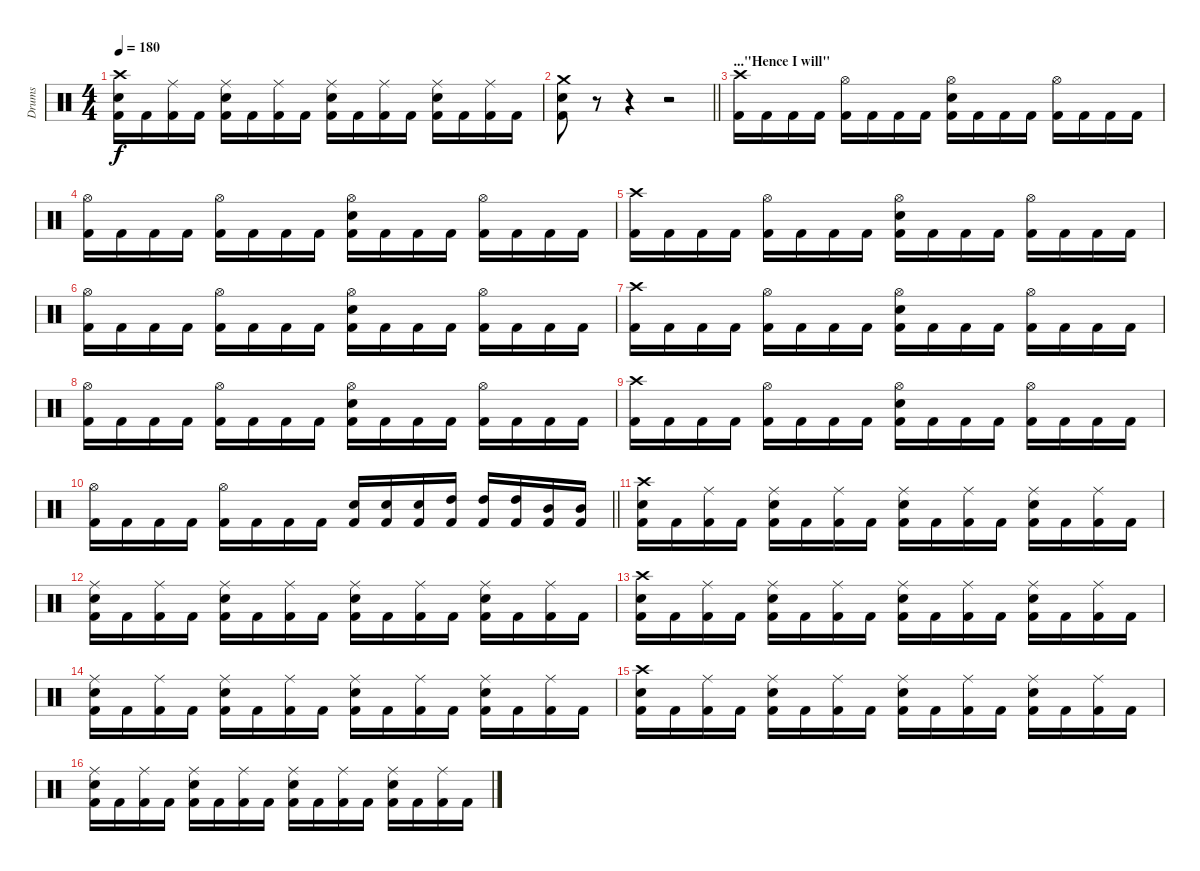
\track ("Drums" "Drums") {instrument percussion}
\staff {score}
\articulation defaults
\ts (4 4)
\tempo 180
\clef neutral
\ks c
("Crash high (hit)" "Electric Snare (hit)" "Kick (hit) 2").16{dy f} "Kick (hit) 2".16 ("Ride (middle)" "Kick (hit) 2").16 "Kick (hit) 2".16 ("Ride (middle)" "Electric Snare (hit)" "Kick (hit) 2").16 "Kick (hit) 2".16 ("Ride (middle)" "Kick (hit) 2").16 "Kick (hit) 2".16 ("Ride (middle)" "Electric Snare (hit)" "Kick (hit) 2").16 "Kick (hit) 2".16 ("Ride (middle)" "Kick (hit) 2").16 "Kick (hit) 2".16 ("Ride (middle)" "Electric Snare (hit)" "Kick (hit) 2").16 "Kick (hit) 2".16 ("Ride (middle)" "Kick (hit) 2").16 "Kick (hit) 2".16 |
\barLineRight lightlight
("Crash medium (hit)" "Electric Snare (hit)" "Kick (hit) 2").8 r.8 r.4{volume 0} r.2{volume 16} |
\section ("" "...\"Hence I will\"")
("Crash high (hit)" "Kick (hit) 2").16 "Kick (hit) 2".16 "Kick (hit) 2".16 "Kick (hit) 2".16 ("Hi-Hat (open)" "Kick (hit) 2").16 "Kick (hit) 2".16 "Kick (hit) 2".16 "Kick (hit) 2".16 ("Hi-Hat (open)" "Electric Snare (hit)" "Kick (hit) 2").16 "Kick (hit) 2".16 "Kick (hit) 2".16 "Kick (hit) 2".16 ("Hi-Hat (open)" "Kick (hit) 2").16 "Kick (hit) 2".16 "Kick (hit) 2".16 "Kick (hit) 2".16 |
("Hi-Hat (open)" "Kick (hit) 2").16 "Kick (hit) 2".16 "Kick (hit) 2".16 "Kick (hit) 2".16 ("Hi-Hat (open)" "Kick (hit) 2").16 "Kick (hit) 2".16 "Kick (hit) 2".16 "Kick (hit) 2".16 ("Hi-Hat (open)" "Electric Snare (hit)" "Kick (hit) 2").16 "Kick (hit) 2".16 "Kick (hit) 2".16 "Kick (hit) 2".16 ("Hi-Hat (open)" "Kick (hit) 2").16 "Kick (hit) 2".16 "Kick (hit) 2".16 "Kick (hit) 2".16 |
("Crash high (hit)" "Kick (hit) 2").16 "Kick (hit) 2".16 "Kick (hit) 2".16 "Kick (hit) 2".16 ("Hi-Hat (open)" "Kick (hit) 2").16 "Kick (hit) 2".16 "Kick (hit) 2".16 "Kick (hit) 2".16 ("Hi-Hat (open)" "Electric Snare (hit)" "Kick (hit) 2").16 "Kick (hit) 2".16 "Kick (hit) 2".16 "Kick (hit) 2".16 ("Hi-Hat (open)" "Kick (hit) 2").16 "Kick (hit) 2".16 "Kick (hit) 2".16 "Kick (hit) 2".16 |
("Hi-Hat (open)" "Kick (hit) 2").16 "Kick (hit) 2".16 "Kick (hit) 2".16 "Kick (hit) 2".16 ("Hi-Hat (open)" "Kick (hit) 2").16 "Kick (hit) 2".16 "Kick (hit) 2".16 "Kick (hit) 2".16 ("Hi-Hat (open)" "Electric Snare (hit)" "Kick (hit) 2").16 "Kick (hit) 2".16 "Kick (hit) 2".16 "Kick (hit) 2".16 ("Hi-Hat (open)" "Kick (hit) 2").16 "Kick (hit) 2".16 "Kick (hit) 2".16 "Kick (hit) 2".16 |
("Crash high (hit)" "Kick (hit) 2").16 "Kick (hit) 2".16 "Kick (hit) 2".16 "Kick (hit) 2".16 ("Hi-Hat (open)" "Kick (hit) 2").16 "Kick (hit) 2".16 "Kick (hit) 2".16 "Kick (hit) 2".16 ("Hi-Hat (open)" "Electric Snare (hit)" "Kick (hit) 2").16 "Kick (hit) 2".16 "Kick (hit) 2".16 "Kick (hit) 2".16 ("Hi-Hat (open)" "Kick (hit) 2").16 "Kick (hit) 2".16 "Kick (hit) 2".16 "Kick (hit) 2".16 |
("Hi-Hat (open)" "Kick (hit) 2").16 "Kick (hit) 2".16 "Kick (hit) 2".16 "Kick (hit) 2".16 ("Hi-Hat (open)" "Kick (hit) 2").16 "Kick (hit) 2".16 "Kick (hit) 2".16 "Kick (hit) 2".16 ("Hi-Hat (open)" "Electric Snare (hit)" "Kick (hit) 2").16 "Kick (hit) 2".16 "Kick (hit) 2".16 "Kick (hit) 2".16 ("Hi-Hat (open)" "Kick (hit) 2").16 "Kick (hit) 2".16 "Kick (hit) 2".16 "Kick (hit) 2".16 |
("Crash high (hit)" "Kick (hit) 2").16 "Kick (hit) 2".16 "Kick (hit) 2".16 "Kick (hit) 2".16 ("Hi-Hat (open)" "Kick (hit) 2").16 "Kick (hit) 2".16 "Kick (hit) 2".16 "Kick (hit) 2".16 ("Hi-Hat (open)" "Electric Snare (hit)" "Kick (hit) 2").16 "Kick (hit) 2".16 "Kick (hit) 2".16 "Kick (hit) 2".16 ("Hi-Hat (open)" "Kick (hit) 2").16 "Kick (hit) 2".16 "Kick (hit) 2".16 "Kick (hit) 2".16 |
\barLineRight lightlight
("Hi-Hat (open)" "Kick (hit) 2").16 "Kick (hit) 2".16 "Kick (hit) 2".16 "Kick (hit) 2".16 ("Hi-Hat (open)" "Kick (hit) 2").16 "Kick (hit) 2".16 "Kick (hit) 2".16 "Kick (hit) 2".16 ("Electric Snare (hit)" "Kick (hit) 2").16 ("Electric Snare (hit)" "Kick (hit) 2").16 ("Electric Snare (hit)" "Kick (hit) 2").16 ("High Tom (hit)" "Kick (hit) 2").16 ("High Tom (hit)" "Kick (hit) 2").16 ("High Tom (hit)" "Kick (hit) 2").16 ("Mid Tom (hit)" "Kick (hit) 2").16 ("Mid Tom (hit)" "Kick (hit) 2").16 |
\section ("" "")
("Crash high (hit)" "Electric Snare (hit)" "Kick (hit) 2").16 "Kick (hit) 2".16 ("Ride (middle)" "Kick (hit) 2").16 "Kick (hit) 2".16 ("Ride (middle)" "Electric Snare (hit)" "Kick (hit) 2").16 "Kick (hit) 2".16 ("Ride (middle)" "Kick (hit) 2").16 "Kick (hit) 2".16 ("Ride (middle)" "Electric Snare (hit)" "Kick (hit) 2").16 "Kick (hit) 2".16 ("Ride (middle)" "Kick (hit) 2").16 "Kick (hit) 2".16 ("Ride (middle)" "Electric Snare (hit)" "Kick (hit) 2").16 "Kick (hit) 2".16 ("Ride (middle)" "Kick (hit) 2").16 "Kick (hit) 2".16 |
("Ride (middle)" "Electric Snare (hit)" "Kick (hit) 2").16 "Kick (hit) 2".16 ("Ride (middle)" "Kick (hit) 2").16 "Kick (hit) 2".16 ("Ride (middle)" "Electric Snare (hit)" "Kick (hit) 2").16 "Kick (hit) 2".16 ("Ride (middle)" "Kick (hit) 2").16 "Kick (hit) 2".16 ("Ride (middle)" "Electric Snare (hit)" "Kick (hit) 2").16 "Kick (hit) 2".16 ("Ride (middle)" "Kick (hit) 2").16 "Kick (hit) 2".16 ("Ride (middle)" "Electric Snare (hit)" "Kick (hit) 2").16 "Kick (hit) 2".16 ("Ride (middle)" "Kick (hit) 2").16 "Kick (hit) 2".16 |
("Crash high (hit)" "Electric Snare (hit)" "Kick (hit) 2").16 "Kick (hit) 2".16 ("Ride (middle)" "Kick (hit) 2").16 "Kick (hit) 2".16 ("Ride (middle)" "Electric Snare (hit)" "Kick (hit) 2").16 "Kick (hit) 2".16 ("Ride (middle)" "Kick (hit) 2").16 "Kick (hit) 2".16 ("Ride (middle)" "Electric Snare (hit)" "Kick (hit) 2").16 "Kick (hit) 2".16 ("Ride (middle)" "Kick (hit) 2").16 "Kick (hit) 2".16 ("Ride (middle)" "Electric Snare (hit)" "Kick (hit) 2").16 "Kick (hit) 2".16 ("Ride (middle)" "Kick (hit) 2").16 "Kick (hit) 2".16 |
("Ride (middle)" "Electric Snare (hit)" "Kick (hit) 2").16 "Kick (hit) 2".16 ("Ride (middle)" "Kick (hit) 2").16 "Kick (hit) 2".16 ("Ride (middle)" "Electric Snare (hit)" "Kick (hit) 2").16 "Kick (hit) 2".16 ("Ride (middle)" "Kick (hit) 2").16 "Kick (hit) 2".16 ("Ride (middle)" "Electric Snare (hit)" "Kick (hit) 2").16 "Kick (hit) 2".16 ("Ride (middle)" "Kick (hit) 2").16 "Kick (hit) 2".16 ("Ride (middle)" "Electric Snare (hit)" "Kick (hit) 2").16 "Kick (hit) 2".16 ("Ride (middle)" "Kick (hit) 2").16 "Kick (hit) 2".16 |
("Crash high (hit)" "Electric Snare (hit)" "Kick (hit) 2").16 "Kick (hit) 2".16 ("Ride (middle)" "Kick (hit) 2").16 "Kick (hit) 2".16 ("Ride (middle)" "Electric Snare (hit)" "Kick (hit) 2").16 "Kick (hit) 2".16 ("Ride (middle)" "Kick (hit) 2").16 "Kick (hit) 2".16 ("Ride (middle)" "Electric Snare (hit)" "Kick (hit) 2").16 "Kick (hit) 2".16 ("Ride (middle)" "Kick (hit) 2").16 "Kick (hit) 2".16 ("Ride (middle)" "Electric Snare (hit)" "Kick (hit) 2").16 "Kick (hit) 2".16 ("Ride (middle)" "Kick (hit) 2").16 "Kick (hit) 2".16 |
("Ride (middle)" "Electric Snare (hit)" "Kick (hit) 2").16 "Kick (hit) 2".16 ("Ride (middle)" "Kick (hit) 2").16 "Kick (hit) 2".16 ("Ride (middle)" "Electric Snare (hit)" "Kick (hit) 2").16 "Kick (hit) 2".16 ("Ride (middle)" "Kick (hit) 2").16 "Kick (hit) 2".16 ("Ride (middle)" "Electric Snare (hit)" "Kick (hit) 2").16 "Kick (hit) 2".16 ("Ride (middle)" "Kick (hit) 2").16 "Kick (hit) 2".16 ("Ride (middle)" "Electric Snare (hit)" "Kick (hit) 2").16 "Kick (hit) 2".16 ("Ride (middle)" "Kick (hit) 2").16 "Kick (hit) 2".16
